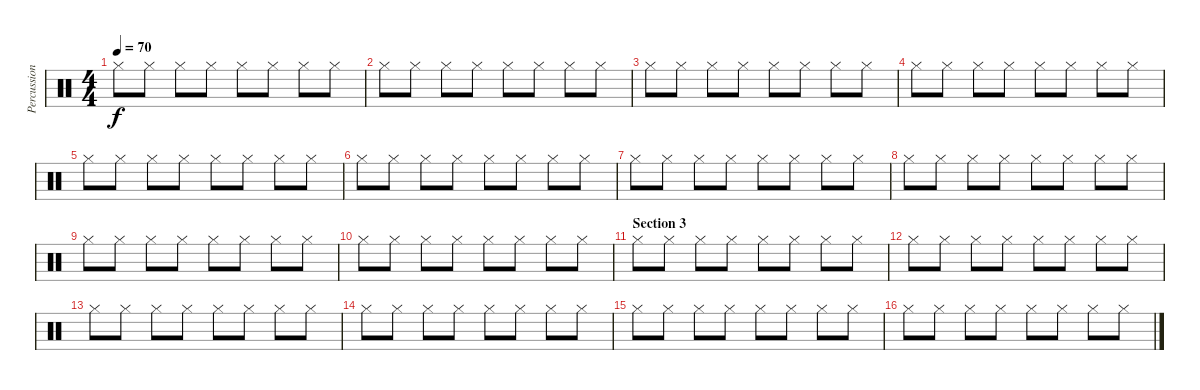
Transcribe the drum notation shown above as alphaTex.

\track ("Percussion" "Percussion") {instrument percussion}
\staff {score}
\articulation defaults
\ts (4 4)
\tempo 70
\clef neutral
\ks c "Hi-Hat (closed)".8{dy f} "Hi-Hat (closed)".8 "Hi-Hat (closed)".8 "Hi-Hat (closed)".8 "Hi-Hat (closed)".8 "Hi-Hat (closed)".8 "Hi-Hat (closed)".8 "Hi-Hat (closed)".8
|
"Hi-Hat (closed)".8 "Hi-Hat (closed)".8 "Hi-Hat (closed)".8 "Hi-Hat (closed)".8 "Hi-Hat (closed)".8 "Hi-Hat (closed)".8 "Hi-Hat (closed)".8 "Hi-Hat (closed)".8 |
"Hi-Hat (closed)".8 "Hi-Hat (closed)".8 "Hi-Hat (closed)".8 "Hi-Hat (closed)".8 "Hi-Hat (closed)".8 "Hi-Hat (closed)".8 "Hi-Hat (closed)".8 "Hi-Hat (closed)".8 |
"Hi-Hat (closed)".8 "Hi-Hat (closed)".8 "Hi-Hat (closed)".8 "Hi-Hat (closed)".8 "Hi-Hat (closed)".8 "Hi-Hat (closed)".8 "Hi-Hat (closed)".8 "Hi-Hat (closed)".8 |
"Hi-Hat (closed)".8 "Hi-Hat (closed)".8 "Hi-Hat (closed)".8 "Hi-Hat (closed)".8 "Hi-Hat (closed)".8 "Hi-Hat (closed)".8 "Hi-Hat (closed)".8 "Hi-Hat (closed)".8 |
"Hi-Hat (closed)".8 "Hi-Hat (closed)".8 "Hi-Hat (closed)".8 "Hi-Hat (closed)".8 "Hi-Hat (closed)".8 "Hi-Hat (closed)".8 "Hi-Hat (closed)".8 "Hi-Hat (closed)".8 |
"Hi-Hat (closed)".8 "Hi-Hat (closed)".8 "Hi-Hat (closed)".8 "Hi-Hat (closed)".8 "Hi-Hat (closed)".8 "Hi-Hat (closed)".8 "Hi-Hat (closed)".8 "Hi-Hat (closed)".8 |
"Hi-Hat (closed)".8 "Hi-Hat (closed)".8 "Hi-Hat (closed)".8 "Hi-Hat (closed)".8 "Hi-Hat (closed)".8 "Hi-Hat (closed)".8 "Hi-Hat (closed)".8 "Hi-Hat (closed)".8 |
"Hi-Hat (closed)".8 "Hi-Hat (closed)".8 "Hi-Hat (closed)".8 "Hi-Hat (closed)".8 "Hi-Hat (closed)".8 "Hi-Hat (closed)".8 "Hi-Hat (closed)".8 "Hi-Hat (closed)".8 |
"Hi-Hat (closed)".8 "Hi-Hat (closed)".8 "Hi-Hat (closed)".8 "Hi-Hat (closed)".8 "Hi-Hat (closed)".8 "Hi-Hat (closed)".8 "Hi-Hat (closed)".8 "Hi-Hat (closed)".8 |
\section ("" "Section 3")
"Hi-Hat (closed)".8 "Hi-Hat (closed)".8 "Hi-Hat (closed)".8 "Hi-Hat (closed)".8 "Hi-Hat (closed)".8 "Hi-Hat (closed)".8 "Hi-Hat (closed)".8 "Hi-Hat (closed)".8 |
"Hi-Hat (closed)".8 "Hi-Hat (closed)".8 "Hi-Hat (closed)".8 "Hi-Hat (closed)".8 "Hi-Hat (closed)".8 "Hi-Hat (closed)".8 "Hi-Hat (closed)".8 "Hi-Hat (closed)".8 |
"Hi-Hat (closed)".8 "Hi-Hat (closed)".8 "Hi-Hat (closed)".8 "Hi-Hat (closed)".8 "Hi-Hat (closed)".8 "Hi-Hat (closed)".8 "Hi-Hat (closed)".8 "Hi-Hat (closed)".8 |
"Hi-Hat (closed)".8 "Hi-Hat (closed)".8 "Hi-Hat (closed)".8 "Hi-Hat (closed)".8 "Hi-Hat (closed)".8 "Hi-Hat (closed)".8 "Hi-Hat (closed)".8 "Hi-Hat (closed)".8 |
"Hi-Hat (closed)".8 "Hi-Hat (closed)".8 "Hi-Hat (closed)".8 "Hi-Hat (closed)".8 "Hi-Hat (closed)".8 "Hi-Hat (closed)".8 "Hi-Hat (closed)".8 "Hi-Hat (closed)".8 |
"Hi-Hat (closed)".8 "Hi-Hat (closed)".8 "Hi-Hat (closed)".8 "Hi-Hat (closed)".8 "Hi-Hat (closed)".8 "Hi-Hat (closed)".8 "Hi-Hat (closed)".8 "Hi-Hat (closed)".8
